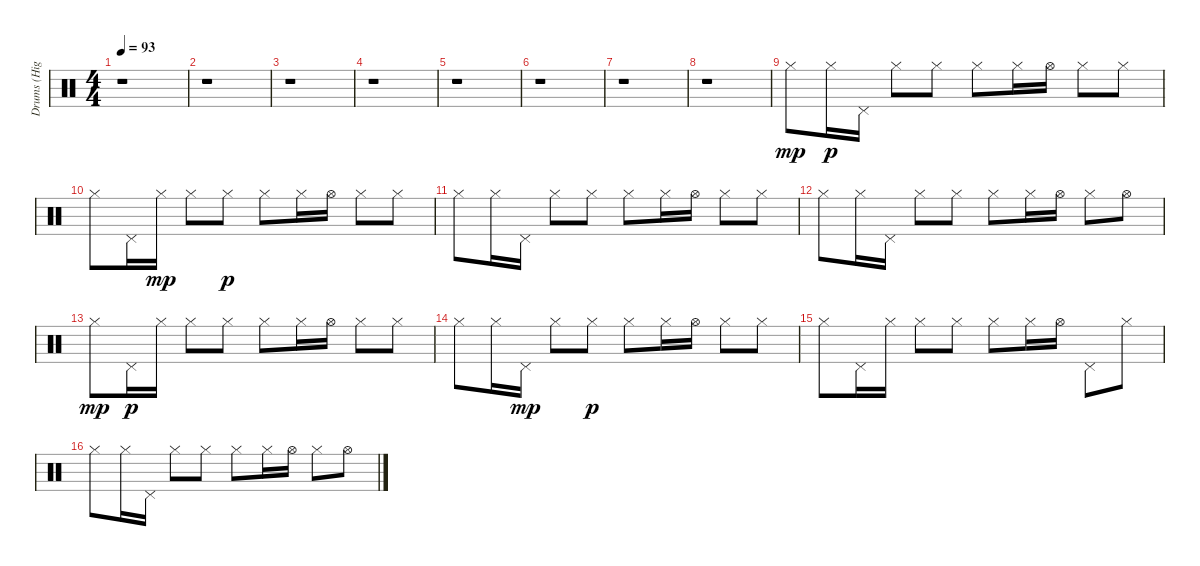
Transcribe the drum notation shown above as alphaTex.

\track ("Drums (High Hat)" "Drums (Hig") {instrument percussion}
\staff {score}
\articulation defaults
\ts (4 4)
\tempo 93
\clef neutral
\ks c
r.1{dy mp} |
r.1 |
r.1 |
r.1 |
r.1 |
r.1 |
r.1 |
r.1 |
"Hi-Hat (closed)".8 "Hi-Hat (closed)".16{dy p} "Pedal Hi-Hat (hit)".16 "Hi-Hat (closed)".8 "Hi-Hat (closed)".8 "Hi-Hat (closed)".8 "Hi-Hat (closed)".16 "Hi-Hat (open)".16 "Hi-Hat (closed)".8 "Hi-Hat (closed)".8 |
"Hi-Hat (closed)".8 "Pedal Hi-Hat (hit)".16 "Hi-Hat (closed)".16{dy mp} "Hi-Hat (closed)".8 "Hi-Hat (closed)".8{dy p} "Hi-Hat (closed)".8 "Hi-Hat (closed)".16 "Hi-Hat (open)".16 "Hi-Hat (closed)".8 "Hi-Hat (closed)".8 |
"Hi-Hat (closed)".8 "Hi-Hat (closed)".16 "Pedal Hi-Hat (hit)".16 "Hi-Hat (closed)".8 "Hi-Hat (closed)".8 "Hi-Hat (closed)".8 "Hi-Hat (closed)".16 "Hi-Hat (open)".16 "Hi-Hat (closed)".8 "Hi-Hat (closed)".8 |
"Hi-Hat (closed)".8 "Hi-Hat (closed)".16 "Pedal Hi-Hat (hit)".16 "Hi-Hat (closed)".8 "Hi-Hat (closed)".8 "Hi-Hat (closed)".8 "Hi-Hat (closed)".16 "Hi-Hat (open)".16 "Hi-Hat (closed)".8 "Hi-Hat (open)".8 |
"Hi-Hat (closed)".8{dy mp} "Pedal Hi-Hat (hit)".16{dy p} "Hi-Hat (closed)".16 "Hi-Hat (closed)".8 "Hi-Hat (closed)".8 "Hi-Hat (closed)".8 "Hi-Hat (closed)".16 "Hi-Hat (open)".16 "Hi-Hat (closed)".8 "Hi-Hat (closed)".8 |
"Hi-Hat (closed)".8 "Hi-Hat (closed)".16 "Pedal Hi-Hat (hit)".16{dy mp} "Hi-Hat (closed)".8 "Hi-Hat (closed)".8{dy p} "Hi-Hat (closed)".8 "Hi-Hat (closed)".16 "Hi-Hat (open)".16 "Hi-Hat (closed)".8 "Hi-Hat (closed)".8 |
"Hi-Hat (closed)".8 "Pedal Hi-Hat (hit)".16 "Hi-Hat (closed)".16 "Hi-Hat (closed)".8 "Hi-Hat (closed)".8 "Hi-Hat (closed)".8 "Hi-Hat (closed)".16 "Hi-Hat (open)".16 "Pedal Hi-Hat (hit)".8 "Hi-Hat (closed)".8 |
"Hi-Hat (closed)".8 "Hi-Hat (closed)".16 "Pedal Hi-Hat (hit)".16 "Hi-Hat (closed)".8 "Hi-Hat (closed)".8 "Hi-Hat (closed)".8 "Hi-Hat (closed)".16 "Hi-Hat (open)".16 "Hi-Hat (closed)".8 "Hi-Hat (open)".8
